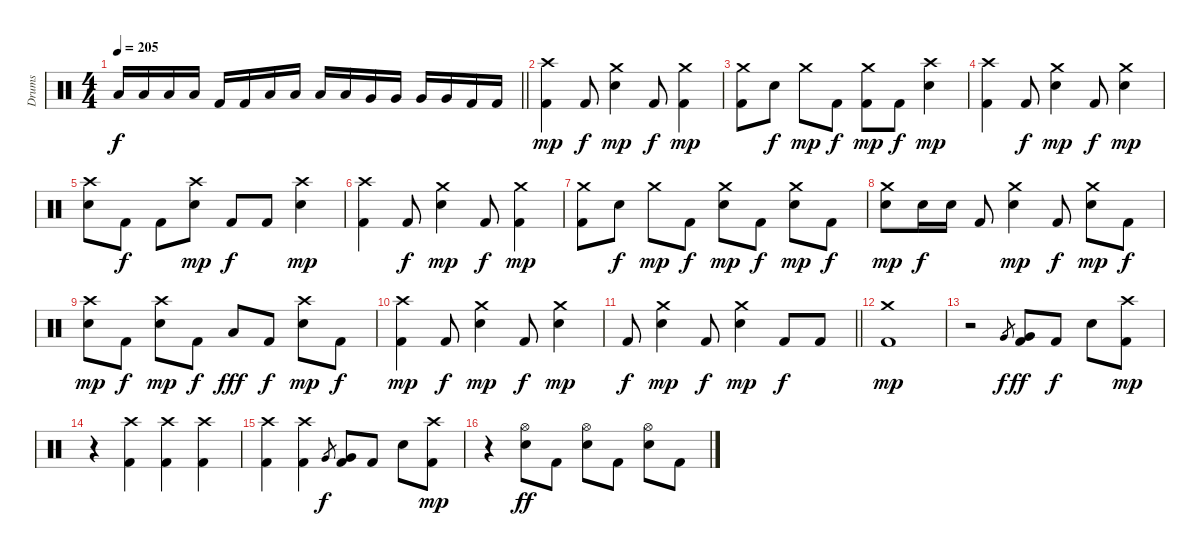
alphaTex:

\track ("Drums" "Drums") {instrument percussion}
\staff {score}
\articulation defaults
\ts (4 4)
\tempo 205
\clef neutral
\barLineRight lightlight
\ks c "Low Tom (hit)".16{dy f} "Low Tom (hit)".16 "Low Tom (hit)".16 "Low Tom (hit)".16 "Kick (hit) 2".16 "Kick (hit) 2".16 "Low Tom (hit)".16 "Low Tom (hit)".16 "Low Tom (hit)".16 "Low Tom (hit)".16 "Very Low Tom (hit)".16 "Very Low Tom (hit)".16 "Very Low Tom (hit)".16 "Very Low Tom (hit)".16 "Kick (hit) 2".16 "Kick (hit) 2".16
|
("Crash high (hit)" "Kick (hit) 2").4{dy mp} "Kick (hit) 2".8{dy f} ("Crash medium (hit)" "Electric Snare (hit)").4{dy mp} "Kick (hit) 2".8{dy f} ("Crash medium (hit)" "Kick (hit) 2").4{dy mp} |
("Crash medium (hit)" "Kick (hit) 2").8 "Electric Snare (hit)".8{dy f} "Crash medium (hit)".8{dy mp} "Kick (hit) 2".8{dy f} ("Crash medium (hit)" "Kick (hit) 2").8{dy mp} "Kick (hit) 2".8{dy f} ("Crash high (hit)" "Electric Snare (hit)").4{dy mp} |
("Crash high (hit)" "Kick (hit) 2").4 "Kick (hit) 2".8{dy f} ("Crash medium (hit)" "Electric Snare (hit)").4{dy mp} "Kick (hit) 2".8{dy f} ("Crash medium (hit)" "Electric Snare (hit)").4{dy mp} |
("Crash high (hit)" "Electric Snare (hit)").8 "Kick (hit) 2".8{dy f} "Kick (hit) 2".8 ("Crash high (hit)" "Electric Snare (hit)").8{dy mp} "Kick (hit) 2".8{dy f} "Kick (hit) 2".8 ("Crash high (hit)" "Electric Snare (hit)").4{dy mp} |
("Crash high (hit)" "Kick (hit) 2").4 "Kick (hit) 2".8{dy f} ("Crash medium (hit)" "Electric Snare (hit)").4{dy mp} "Kick (hit) 2".8{dy f} ("Crash medium (hit)" "Kick (hit) 2").4{dy mp} |
("Crash medium (hit)" "Kick (hit) 2").8 "Electric Snare (hit)".8{dy f} "Crash medium (hit)".8{dy mp} "Kick (hit) 2".8{dy f} ("Crash medium (hit)" "Electric Snare (hit)").8{dy mp} "Kick (hit) 2".8{dy f} ("Crash medium (hit)" "Electric Snare (hit)").8{dy mp} "Kick (hit) 2".8{dy f} |
("Crash medium (hit)" "Electric Snare (hit)").8{dy mp} "Electric Snare (hit)".16{dy f} "Electric Snare (hit)".16 "Kick (hit) 2".8 ("Crash medium (hit)" "Electric Snare (hit)").4{dy mp} "Kick (hit) 2".8{dy f} ("Crash medium (hit)" "Electric Snare (hit)").8{dy mp} "Kick (hit) 2".8{dy f} |
("Crash high (hit)" "Electric Snare (hit)").8{dy mp} "Kick (hit) 2".8{dy f} ("Crash high (hit)" "Electric Snare (hit)").8{dy mp} "Kick (hit) 2".8{dy f} "Low Tom (hit)".8{dy fff} "Kick (hit) 2".8{dy f} ("Crash high (hit)" "Electric Snare (hit)").8{dy mp} "Kick (hit) 2".8{dy f} |
("Crash high (hit)" "Kick (hit) 2").4{dy mp} "Kick (hit) 2".8{dy f} ("Crash medium (hit)" "Electric Snare (hit)").4{dy mp} "Kick (hit) 2".8{dy f} ("Crash medium (hit)" "Electric Snare (hit)").4{dy mp} |
\barLineRight lightlight "Kick (hit) 2".8{dy f}
("Crash medium (hit)" "Electric Snare (hit)").4{dy mp} "Kick (hit) 2".8{dy f} ("Crash medium (hit)" "Electric Snare (hit)").4{dy mp} "Kick (hit) 2".8{dy f} "Kick (hit) 2".8 |
("Crash medium (hit)" "Kick (hit) 2").1{dy mp} |
r.2 "Very Low Tom (hit)".8{gr dy f} ("Very Low Tom (hit)" "Kick (hit) 2").8{dy ff} "Kick (hit) 2".8{dy f} "Electric Snare (hit)".8 ("Crash high (hit)" "Kick (hit) 2").8{dy mp} |
r.4 ("Crash high (hit)" "Kick (hit) 2").4 ("Crash high (hit)" "Kick (hit) 2").4 ("Crash high (hit)" "Kick (hit) 2").4 |
("Crash high (hit)" "Kick (hit) 2").4 ("Crash high (hit)" "Kick (hit) 2").4 "Very Low Tom (hit)".8{gr dy f} ("Very Low Tom (hit)" "Kick (hit) 2").8 "Kick (hit) 2".8 "Electric Snare (hit)".8 ("Crash high (hit)" "Kick (hit) 2").8{dy mp} |
r.4 ("Hi-Hat (open)" "Electric Snare (hit)").8{dy ff} "Kick (hit) 2".8 ("Hi-Hat (open)" "Electric Snare (hit)").8 "Kick (hit) 2".8 ("Hi-Hat (open)" "Electric Snare (hit)").8 "Kick (hit) 2".8
